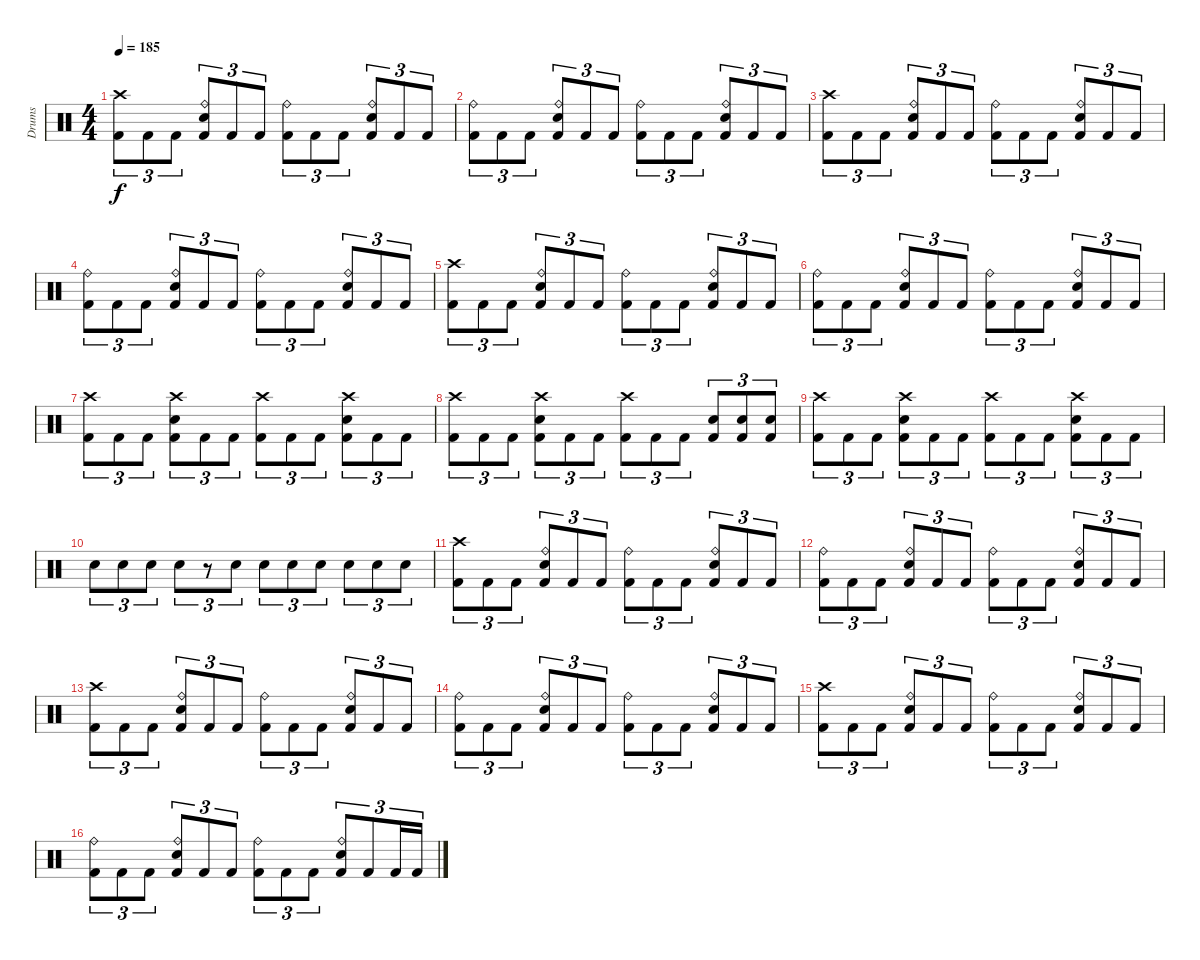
\track ("Drums" "Drums") {instrument percussion}
\staff {score}
\articulation defaults
\ts (4 4)
\tempo 185
\clef neutral
\ks c
("Crash high (hit)" "Kick (hit) 2").8{tu (3 2) dy f} "Kick (hit) 2".8{tu (3 2)} "Kick (hit) 2".8{tu (3 2)} ("Ride (bell)" "Electric Snare (hit)" "Kick (hit) 2").8{tu (3 2)} "Kick (hit) 2".8{tu (3 2)} "Kick (hit) 2".8{tu (3 2)} ("Ride (bell)" "Kick (hit) 2").8{tu (3 2)} "Kick (hit) 2".8{tu (3 2)} "Kick (hit) 2".8{tu (3 2)} ("Ride (bell)" "Electric Snare (hit)" "Kick (hit) 2").8{tu (3 2)} "Kick (hit) 2".8{tu (3 2)} "Kick (hit) 2".8{tu (3 2)} |
("Ride (bell)" "Kick (hit) 2").8{tu (3 2)} "Kick (hit) 2".8{tu (3 2)} "Kick (hit) 2".8{tu (3 2)} ("Ride (bell)" "Electric Snare (hit)" "Kick (hit) 2").8{tu (3 2)} "Kick (hit) 2".8{tu (3 2)} "Kick (hit) 2".8{tu (3 2)} ("Ride (bell)" "Kick (hit) 2").8{tu (3 2)} "Kick (hit) 2".8{tu (3 2)} "Kick (hit) 2".8{tu (3 2)} ("Ride (bell)" "Electric Snare (hit)" "Kick (hit) 2").8{tu (3 2)} "Kick (hit) 2".8{tu (3 2)} "Kick (hit) 2".8{tu (3 2)} |
("Crash high (hit)" "Kick (hit) 2").8{tu (3 2)} "Kick (hit) 2".8{tu (3 2)} "Kick (hit) 2".8{tu (3 2)} ("Ride (bell)" "Electric Snare (hit)" "Kick (hit) 2").8{tu (3 2)} "Kick (hit) 2".8{tu (3 2)} "Kick (hit) 2".8{tu (3 2)} ("Ride (bell)" "Kick (hit) 2").8{tu (3 2)} "Kick (hit) 2".8{tu (3 2)} "Kick (hit) 2".8{tu (3 2)} ("Ride (bell)" "Electric Snare (hit)" "Kick (hit) 2").8{tu (3 2)} "Kick (hit) 2".8{tu (3 2)} "Kick (hit) 2".8{tu (3 2)} |
("Ride (bell)" "Kick (hit) 2").8{tu (3 2)} "Kick (hit) 2".8{tu (3 2)} "Kick (hit) 2".8{tu (3 2)} ("Ride (bell)" "Electric Snare (hit)" "Kick (hit) 2").8{tu (3 2)} "Kick (hit) 2".8{tu (3 2)} "Kick (hit) 2".8{tu (3 2)} ("Ride (bell)" "Kick (hit) 2").8{tu (3 2)} "Kick (hit) 2".8{tu (3 2)} "Kick (hit) 2".8{tu (3 2)} ("Ride (bell)" "Electric Snare (hit)" "Kick (hit) 2").8{tu (3 2)} "Kick (hit) 2".8{tu (3 2)} "Kick (hit) 2".8{tu (3 2)} |
("Crash high (hit)" "Kick (hit) 2").8{tu (3 2)} "Kick (hit) 2".8{tu (3 2)} "Kick (hit) 2".8{tu (3 2)} ("Ride (bell)" "Electric Snare (hit)" "Kick (hit) 2").8{tu (3 2)} "Kick (hit) 2".8{tu (3 2)} "Kick (hit) 2".8{tu (3 2)} ("Ride (bell)" "Kick (hit) 2").8{tu (3 2)} "Kick (hit) 2".8{tu (3 2)} "Kick (hit) 2".8{tu (3 2)} ("Ride (bell)" "Electric Snare (hit)" "Kick (hit) 2").8{tu (3 2)} "Kick (hit) 2".8{tu (3 2)} "Kick (hit) 2".8{tu (3 2)} |
("Ride (bell)" "Kick (hit) 2").8{tu (3 2)} "Kick (hit) 2".8{tu (3 2)} "Kick (hit) 2".8{tu (3 2)} ("Ride (bell)" "Electric Snare (hit)" "Kick (hit) 2").8{tu (3 2)} "Kick (hit) 2".8{tu (3 2)} "Kick (hit) 2".8{tu (3 2)} ("Ride (bell)" "Kick (hit) 2").8{tu (3 2)} "Kick (hit) 2".8{tu (3 2)} "Kick (hit) 2".8{tu (3 2)} ("Ride (bell)" "Electric Snare (hit)" "Kick (hit) 2").8{tu (3 2)} "Kick (hit) 2".8{tu (3 2)} "Kick (hit) 2".8{tu (3 2)} |
("Crash high (hit)" "Kick (hit) 2").8{tu (3 2)} "Kick (hit) 2".8{tu (3 2)} "Kick (hit) 2".8{tu (3 2)} ("Crash high (hit)" "Electric Snare (hit)" "Kick (hit) 2").8{tu (3 2)} "Kick (hit) 2".8{tu (3 2)} "Kick (hit) 2".8{tu (3 2)} ("Crash high (hit)" "Kick (hit) 2").8{tu (3 2)} "Kick (hit) 2".8{tu (3 2)} "Kick (hit) 2".8{tu (3 2)} ("Crash high (hit)" "Electric Snare (hit)" "Kick (hit) 2").8{tu (3 2)} "Kick (hit) 2".8{tu (3 2)} "Kick (hit) 2".8{tu (3 2)} |
("Crash high (hit)" "Kick (hit) 2").8{tu (3 2)} "Kick (hit) 2".8{tu (3 2)} "Kick (hit) 2".8{tu (3 2)} ("Crash high (hit)" "Electric Snare (hit)" "Kick (hit) 2").8{tu (3 2)} "Kick (hit) 2".8{tu (3 2)} "Kick (hit) 2".8{tu (3 2)} ("Crash high (hit)" "Kick (hit) 2").8{tu (3 2)} "Kick (hit) 2".8{tu (3 2)} "Kick (hit) 2".8{tu (3 2)} ("Electric Snare (hit)" "Kick (hit) 2").8{tu (3 2)} ("Electric Snare (hit)" "Kick (hit) 2").8{tu (3 2)} ("Electric Snare (hit)" "Kick (hit) 2").8{tu (3 2)} |
("Crash high (hit)" "Kick (hit) 2").8{tu (3 2)} "Kick (hit) 2".8{tu (3 2)} "Kick (hit) 2".8{tu (3 2)} ("Crash high (hit)" "Electric Snare (hit)" "Kick (hit) 2").8{tu (3 2)} "Kick (hit) 2".8{tu (3 2)} "Kick (hit) 2".8{tu (3 2)} ("Crash high (hit)" "Kick (hit) 2").8{tu (3 2)} "Kick (hit) 2".8{tu (3 2)} "Kick (hit) 2".8{tu (3 2)} ("Crash high (hit)" "Electric Snare (hit)" "Kick (hit) 2").8{tu (3 2)} "Kick (hit) 2".8{tu (3 2)} "Kick (hit) 2".8{tu (3 2)} |
"Electric Snare (hit)".8{tu (3 2)} "Electric Snare (hit)".8{tu (3 2)} "Electric Snare (hit)".8{tu (3 2)} "Electric Snare (hit)".8{tu (3 2)} r.8{tu (3 2)} "Electric Snare (hit)".8{tu (3 2)} "Electric Snare (hit)".8{tu (3 2)} "Electric Snare (hit)".8{tu (3 2)} "Electric Snare (hit)".8{tu (3 2)} "Electric Snare (hit)".8{tu (3 2)} "Electric Snare (hit)".8{tu (3 2)} "Electric Snare (hit)".8{tu (3 2)} |
("Crash high (hit)" "Kick (hit) 2").8{tu (3 2)} "Kick (hit) 2".8{tu (3 2)} "Kick (hit) 2".8{tu (3 2)} ("Ride (bell)" "Electric Snare (hit)" "Kick (hit) 2").8{tu (3 2)} "Kick (hit) 2".8{tu (3 2)} "Kick (hit) 2".8{tu (3 2)} ("Ride (bell)" "Kick (hit) 2").8{tu (3 2)} "Kick (hit) 2".8{tu (3 2)} "Kick (hit) 2".8{tu (3 2)} ("Ride (bell)" "Electric Snare (hit)" "Kick (hit) 2").8{tu (3 2)} "Kick (hit) 2".8{tu (3 2)} "Kick (hit) 2".8{tu (3 2)} |
("Ride (bell)" "Kick (hit) 2").8{tu (3 2)} "Kick (hit) 2".8{tu (3 2)} "Kick (hit) 2".8{tu (3 2)} ("Ride (bell)" "Electric Snare (hit)" "Kick (hit) 2").8{tu (3 2)} "Kick (hit) 2".8{tu (3 2)} "Kick (hit) 2".8{tu (3 2)} ("Ride (bell)" "Kick (hit) 2").8{tu (3 2)} "Kick (hit) 2".8{tu (3 2)} "Kick (hit) 2".8{tu (3 2)} ("Ride (bell)" "Electric Snare (hit)" "Kick (hit) 2").8{tu (3 2)} "Kick (hit) 2".8{tu (3 2)} "Kick (hit) 2".8{tu (3 2)} |
("Crash high (hit)" "Kick (hit) 2").8{tu (3 2)} "Kick (hit) 2".8{tu (3 2)} "Kick (hit) 2".8{tu (3 2)} ("Ride (bell)" "Electric Snare (hit)" "Kick (hit) 2").8{tu (3 2)} "Kick (hit) 2".8{tu (3 2)} "Kick (hit) 2".8{tu (3 2)} ("Ride (bell)" "Kick (hit) 2").8{tu (3 2)} "Kick (hit) 2".8{tu (3 2)} "Kick (hit) 2".8{tu (3 2)} ("Ride (bell)" "Electric Snare (hit)" "Kick (hit) 2").8{tu (3 2)} "Kick (hit) 2".8{tu (3 2)} "Kick (hit) 2".8{tu (3 2)} |
("Ride (bell)" "Kick (hit) 2").8{tu (3 2)} "Kick (hit) 2".8{tu (3 2)} "Kick (hit) 2".8{tu (3 2)} ("Ride (bell)" "Electric Snare (hit)" "Kick (hit) 2").8{tu (3 2)} "Kick (hit) 2".8{tu (3 2)} "Kick (hit) 2".8{tu (3 2)} ("Ride (bell)" "Kick (hit) 2").8{tu (3 2)} "Kick (hit) 2".8{tu (3 2)} "Kick (hit) 2".8{tu (3 2)} ("Ride (bell)" "Electric Snare (hit)" "Kick (hit) 2").8{tu (3 2)} "Kick (hit) 2".8{tu (3 2)} "Kick (hit) 2".8{tu (3 2)} |
("Crash high (hit)" "Kick (hit) 2").8{tu (3 2)} "Kick (hit) 2".8{tu (3 2)} "Kick (hit) 2".8{tu (3 2)} ("Ride (bell)" "Electric Snare (hit)" "Kick (hit) 2").8{tu (3 2)} "Kick (hit) 2".8{tu (3 2)} "Kick (hit) 2".8{tu (3 2)} ("Ride (bell)" "Kick (hit) 2").8{tu (3 2)} "Kick (hit) 2".8{tu (3 2)} "Kick (hit) 2".8{tu (3 2)} ("Ride (bell)" "Electric Snare (hit)" "Kick (hit) 2").8{tu (3 2)} "Kick (hit) 2".8{tu (3 2)} "Kick (hit) 2".8{tu (3 2)} |
("Ride (bell)" "Kick (hit) 2").8{tu (3 2)} "Kick (hit) 2".8{tu (3 2)} "Kick (hit) 2".8{tu (3 2)} ("Ride (bell)" "Electric Snare (hit)" "Kick (hit) 2").8{tu (3 2)} "Kick (hit) 2".8{tu (3 2)} "Kick (hit) 2".8{tu (3 2)} ("Ride (bell)" "Kick (hit) 2").8{tu (3 2)} "Kick (hit) 2".8{tu (3 2)} "Kick (hit) 2".8{tu (3 2)} ("Ride (bell)" "Electric Snare (hit)" "Kick (hit) 2").8{tu (3 2)} "Kick (hit) 2".8{tu (3 2)} "Kick (hit) 2".16{tu (3 2)} "Kick (hit) 2".16{tu (3 2)}
